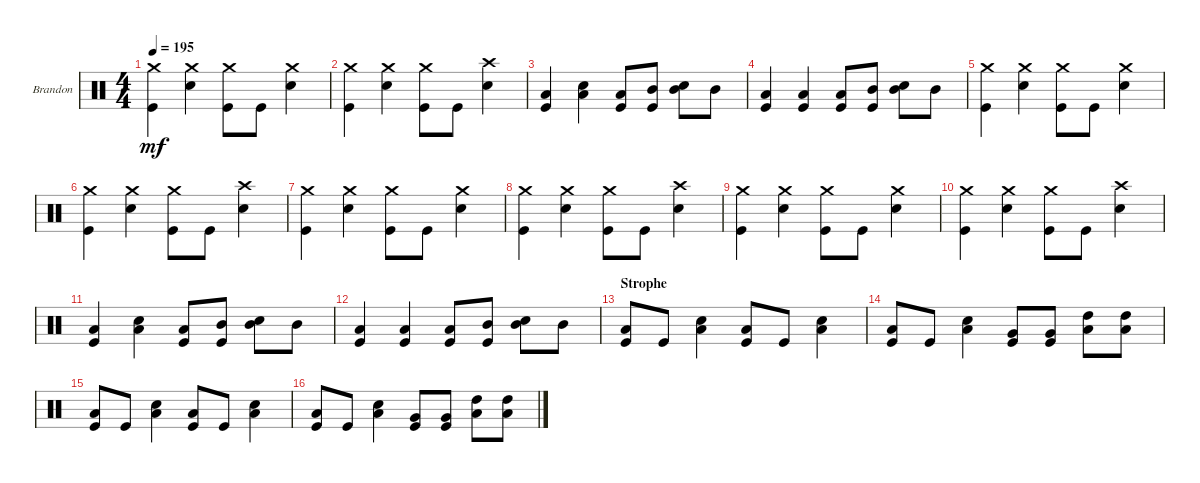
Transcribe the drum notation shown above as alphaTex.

\defaultSystemsLayout 4
\bracketExtendMode groupsimilarinstruments
\firstSystemTrackNameOrientation horizontal
\otherSystemsTrackNameOrientation horizontal
\track ("Drumkit" "Brandon") {instrument percussion}
\staff {score}
\articulation defaults
\ts (4 4)
\tempo 195
\clef neutral
\scale
0.333333
\ks c
("Kick (hit)" "Crash medium (hit)").4{dy mf} ("Snare (hit) 2" "Crash medium (hit)").4 ("Kick (hit)" "Crash medium (hit)").8 "Kick (hit)".8 ("Snare (hit) 2" "Crash medium (hit)").4 |
\scale
0.333333 ("Kick (hit)" "Crash medium (hit)").4 ("Snare (hit) 2" "Crash medium (hit)").4 ("Kick (hit)" "Crash medium (hit)").8 "Kick (hit)".8 ("Snare (hit) 2" "Crash high (hit)").4 |
\scale
0.333333 ("Kick (hit)" "Low Tom (hit)").4 ("Low Tom (hit)" "Snare (hit) 2").4 ("Kick (hit)" "Low Tom (hit)").8 ("Kick (hit)" "Mid Tom (hit)").8 ("Snare (hit) 2" "Mid Tom (hit)").8 "Mid Tom (hit)".8 |
\scale
0.333333 ("Kick (hit)" "Low Tom (hit)").4 ("Kick (hit)" "Low Tom (hit)").4 ("Kick (hit)" "Low Tom (hit)").8 ("Kick (hit)" "Mid Tom (hit)").8 ("Snare (hit) 2" "Mid Tom (hit)").8 "Mid Tom (hit)".8 |
\scale
0.333333 ("Kick (hit)" "Crash medium (hit)").4 ("Snare (hit) 2" "Crash medium (hit)").4 ("Kick (hit)" "Crash medium (hit)").8 "Kick (hit)".8 ("Snare (hit) 2" "Crash medium (hit)").4 |
\scale
0.333333 ("Kick (hit)" "Crash medium (hit)").4 ("Snare (hit) 2" "Crash medium (hit)").4 ("Kick (hit)" "Crash medium (hit)").8 "Kick (hit)".8 ("Snare (hit) 2" "Crash high (hit)").4 |
\scale
0.333333 ("Kick (hit)" "Crash medium (hit)").4 ("Snare (hit) 2" "Crash medium (hit)").4 ("Kick (hit)" "Crash medium (hit)").8 "Kick (hit)".8 ("Snare (hit) 2" "Crash medium (hit)").4 |
\scale
0.333333 ("Kick (hit)" "Crash medium (hit)").4 ("Snare (hit) 2" "Crash medium (hit)").4 ("Kick (hit)" "Crash medium (hit)").8 "Kick (hit)".8 ("Snare (hit) 2" "Crash high (hit)").4 |
\scale
0.333333 ("Kick (hit)" "Crash medium (hit)").4 ("Snare (hit) 2" "Crash medium (hit)").4 ("Kick (hit)" "Crash medium (hit)").8 "Kick (hit)".8 ("Snare (hit) 2" "Crash medium (hit)").4 |
\scale
0.333333 ("Kick (hit)" "Crash medium (hit)").4 ("Snare (hit) 2" "Crash medium (hit)").4 ("Kick (hit)" "Crash medium (hit)").8 "Kick (hit)".8 ("Snare (hit) 2" "Crash high (hit)").4 |
\scale
0.333333 ("Kick (hit)" "Low Tom (hit)").4 ("Low Tom (hit)" "Snare (hit) 2").4 ("Kick (hit)" "Low Tom (hit)").8 ("Kick (hit)" "Mid Tom (hit)").8 ("Snare (hit) 2" "Mid Tom (hit)").8 "Mid Tom (hit)".8 |
\scale
0.333333 ("Kick (hit)" "Low Tom (hit)").4 ("Kick (hit)" "Low Tom (hit)").4 ("Kick (hit)" "Low Tom (hit)").8 ("Kick (hit)" "Mid Tom (hit)").8 ("Snare (hit) 2" "Mid Tom (hit)").8 "Mid Tom (hit)".8 |
\section ("" "Strophe")
\scale
0.333333 ("Kick (hit)" "Low Tom (hit)").8 "Kick (hit)".8 ("Snare (hit) 2" "Low Tom (hit)").4 ("Kick (hit)" "Low Tom (hit)").8 "Kick (hit)".8 ("Snare (hit) 2" "Low Tom (hit)").4 |
\scale
0.333333 ("Kick (hit)" "Low Tom (hit)").8 "Kick (hit)".8 ("Snare (hit) 2" "Low Tom (hit)").4 ("Very Low Tom (hit)" "Kick (hit)").8 ("Very Low Tom (hit)" "Kick (hit)").8 ("Low Tom (hit)" "High Tom (hit)").8 ("Low Tom (hit)" "High Tom (hit)").8 |
\scale
0.333333 ("Kick (hit)" "Low Tom (hit)").8 "Kick (hit)".8 ("Snare (hit) 2" "Low Tom (hit)").4 ("Kick (hit)" "Low Tom (hit)").8 "Kick (hit)".8 ("Snare (hit) 2" "Low Tom (hit)").4 |
\scale
0.333333 ("Kick (hit)" "Low Tom (hit)").8 "Kick (hit)".8 ("Snare (hit) 2" "Low Tom (hit)").4 ("Very Low Tom (hit)" "Kick (hit)").8 ("Very Low Tom (hit)" "Kick (hit)").8 ("Low Tom (hit)" "High Tom (hit)").8 ("Low Tom (hit)" "High Tom (hit)").8
